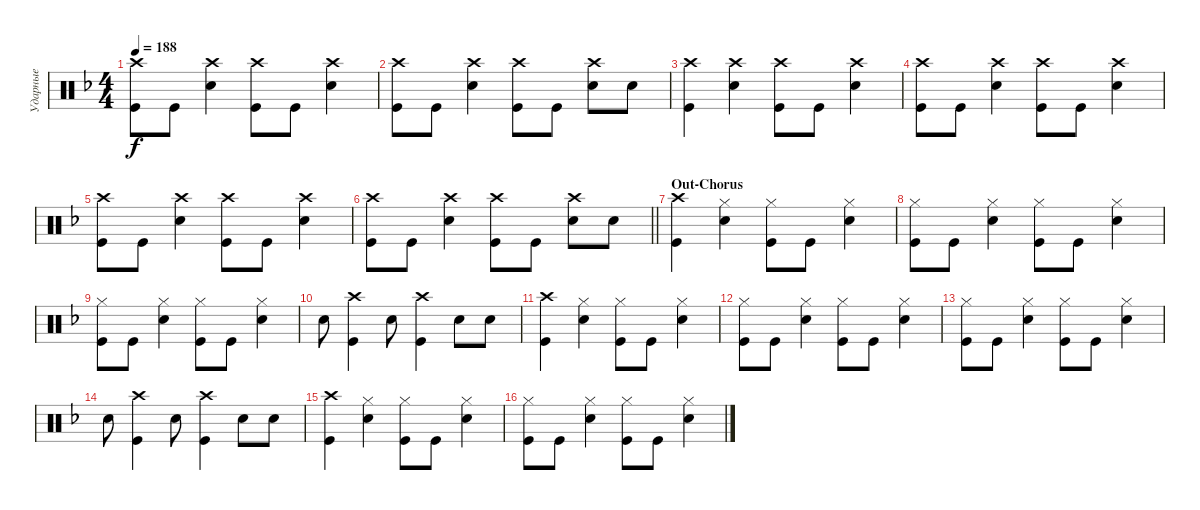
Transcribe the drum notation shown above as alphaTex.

\track ("Ударные" "Ударные") {instrument percussion}
\staff {score}
\articulation defaults
\ts (4 4)
\tempo 188
\clef neutral
\ks dminor
("Kick (hit)" "Crash high (hit)").8{dy f} "Kick (hit)".8 ("Snare (hit) 2" "Crash high (hit)").4 ("Kick (hit)" "Crash high (hit)").8 "Kick (hit)".8 ("Snare (hit) 2" "Crash high (hit)").4 |
("Kick (hit)" "Crash high (hit)").8 "Kick (hit)".8 ("Snare (hit) 2" "Crash high (hit)").4 ("Kick (hit)" "Crash high (hit)").8 "Kick (hit)".8 ("Snare (hit) 2" "Crash high (hit)").8 "Snare (hit) 2".8 |
("Kick (hit)" "Crash high (hit)").4 ("Snare (hit) 2" "Crash high (hit)").4 ("Kick (hit)" "Crash high (hit)").8 "Kick (hit)".8 ("Snare (hit) 2" "Crash high (hit)").4 |
("Kick (hit)" "Crash high (hit)").8 "Kick (hit)".8 ("Snare (hit) 2" "Crash high (hit)").4 ("Kick (hit)" "Crash high (hit)").8 "Kick (hit)".8 ("Snare (hit) 2" "Crash high (hit)").4 |
("Kick (hit)" "Crash high (hit)").8 "Kick (hit)".8 ("Snare (hit) 2" "Crash high (hit)").4 ("Kick (hit)" "Crash high (hit)").8 "Kick (hit)".8 ("Snare (hit) 2" "Crash high (hit)").4 |
\barLineRight lightlight
("Kick (hit)" "Crash high (hit)").8 "Kick (hit)".8 ("Snare (hit) 2" "Crash high (hit)").4 ("Kick (hit)" "Crash high (hit)").8 "Kick (hit)".8 ("Snare (hit) 2" "Crash high (hit)").8 "Snare (hit) 2".8 |
\section ("" "Out-Chorus")
("Kick (hit)" "Crash high (hit)").4 ("Snare (hit) 2" "Hi-Hat (closed)").4 ("Kick (hit)" "Hi-Hat (closed)").8 "Kick (hit)".8 ("Hi-Hat (closed)" "Snare (hit) 2").4 |
("Kick (hit)" "Hi-Hat (closed)").8 "Kick (hit)".8 ("Snare (hit) 2" "Hi-Hat (closed)").4 ("Kick (hit)" "Hi-Hat (closed)").8 "Kick (hit)".8 ("Hi-Hat (closed)" "Snare (hit) 2").4 |
("Kick (hit)" "Hi-Hat (closed)").8 "Kick (hit)".8 ("Snare (hit) 2" "Hi-Hat (closed)").4 ("Kick (hit)" "Hi-Hat (closed)").8 "Kick (hit)".8 ("Hi-Hat (closed)" "Snare (hit) 2").4 |
"Snare (hit) 2".8 ("Kick (hit)" "Crash high (hit)").4 "Snare (hit) 2".8 ("Kick (hit)" "Crash high (hit)").4 "Snare (hit) 2".8 "Snare (hit) 2".8 |
("Kick (hit)" "Crash high (hit)").4 ("Snare (hit) 2" "Hi-Hat (closed)").4 ("Kick (hit)" "Hi-Hat (closed)").8 "Kick (hit)".8 ("Hi-Hat (closed)" "Snare (hit) 2").4 |
("Kick (hit)" "Hi-Hat (closed)").8 "Kick (hit)".8 ("Snare (hit) 2" "Hi-Hat (closed)").4 ("Kick (hit)" "Hi-Hat (closed)").8 "Kick (hit)".8 ("Hi-Hat (closed)" "Snare (hit) 2").4 |
("Kick (hit)" "Hi-Hat (closed)").8 "Kick (hit)".8 ("Snare (hit) 2" "Hi-Hat (closed)").4 ("Kick (hit)" "Hi-Hat (closed)").8 "Kick (hit)".8 ("Hi-Hat (closed)" "Snare (hit) 2").4 |
"Snare (hit) 2".8 ("Kick (hit)" "Crash high (hit)").4 "Snare (hit) 2".8 ("Kick (hit)" "Crash high (hit)").4 "Snare (hit) 2".8 "Snare (hit) 2".8 |
("Kick (hit)" "Crash high (hit)").4 ("Snare (hit) 2" "Hi-Hat (closed)").4 ("Kick (hit)" "Hi-Hat (closed)").8 "Kick (hit)".8 ("Hi-Hat (closed)" "Snare (hit) 2").4 |
("Kick (hit)" "Hi-Hat (closed)").8 "Kick (hit)".8 ("Snare (hit) 2" "Hi-Hat (closed)").4 ("Kick (hit)" "Hi-Hat (closed)").8 "Kick (hit)".8 ("Hi-Hat (closed)" "Snare (hit) 2").4
